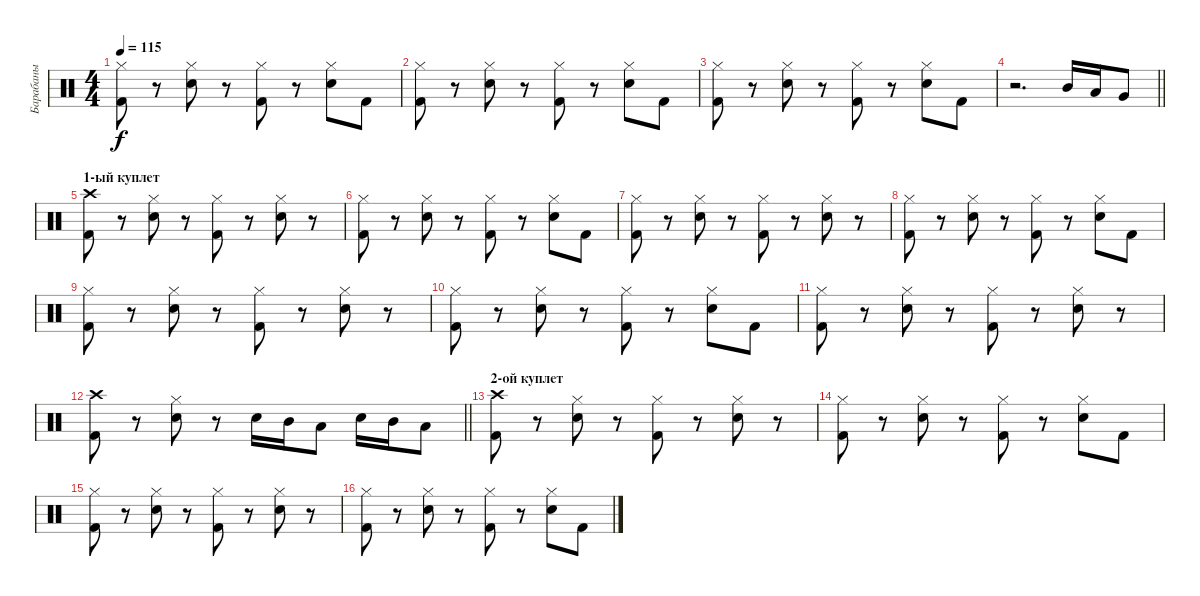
\track ("Барабаны" "Барабаны") {instrument percussion}
\staff {score}
\articulation defaults
\ts (4 4)
\tempo 115
\clef neutral
\ks c
("Kick (hit) 2" "Hi-Hat (closed)").8{dy f} r.8 ("Snare (hit) 2" "Hi-Hat (closed)").8 r.8 ("Kick (hit) 2" "Hi-Hat (closed)").8 r.8 ("Snare (hit) 2" "Hi-Hat (closed)").8 "Kick (hit) 2".8 |
("Kick (hit) 2" "Hi-Hat (closed)").8 r.8 ("Snare (hit) 2" "Hi-Hat (closed)").8 r.8 ("Kick (hit) 2" "Hi-Hat (closed)").8 r.8 ("Snare (hit) 2" "Hi-Hat (closed)").8 "Kick (hit) 2".8 |
("Kick (hit) 2" "Hi-Hat (closed)").8 r.8 ("Snare (hit) 2" "Hi-Hat (closed)").8 r.8 ("Kick (hit) 2" "Hi-Hat (closed)").8 r.8 ("Snare (hit) 2" "Hi-Hat (closed)").8 "Kick (hit) 2".8 |
\barLineRight lightlight
r.2{d} "Mid Tom (hit)".16 "Low Tom (hit)".16 "Very Low Tom (hit)".8 |
\section ("" "1-ый куплет")
("Kick (hit) 2" "Crash high (hit)").8 r.8 ("Snare (hit) 2" "Hi-Hat (closed)").8 r.8 ("Kick (hit) 2" "Hi-Hat (closed)").8 r.8 ("Snare (hit) 2" "Hi-Hat (closed)").8 r.8 |
("Kick (hit) 2" "Hi-Hat (closed)").8 r.8 ("Snare (hit) 2" "Hi-Hat (closed)").8 r.8 ("Kick (hit) 2" "Hi-Hat (closed)").8 r.8 ("Snare (hit) 2" "Hi-Hat (closed)").8 "Kick (hit) 2".8 |
("Kick (hit) 2" "Hi-Hat (closed)").8 r.8 ("Snare (hit) 2" "Hi-Hat (closed)").8 r.8 ("Kick (hit) 2" "Hi-Hat (closed)").8 r.8 ("Snare (hit) 2" "Hi-Hat (closed)").8 r.8 |
("Kick (hit) 2" "Hi-Hat (closed)").8 r.8 ("Snare (hit) 2" "Hi-Hat (closed)").8 r.8 ("Kick (hit) 2" "Hi-Hat (closed)").8 r.8 ("Snare (hit) 2" "Hi-Hat (closed)").8 "Kick (hit) 2".8 |
("Kick (hit) 2" "Hi-Hat (closed)").8 r.8 ("Snare (hit) 2" "Hi-Hat (closed)").8 r.8 ("Kick (hit) 2" "Hi-Hat (closed)").8 r.8 ("Snare (hit) 2" "Hi-Hat (closed)").8 r.8 |
("Kick (hit) 2" "Hi-Hat (closed)").8 r.8 ("Snare (hit) 2" "Hi-Hat (closed)").8 r.8 ("Kick (hit) 2" "Hi-Hat (closed)").8 r.8 ("Snare (hit) 2" "Hi-Hat (closed)").8 "Kick (hit) 2".8 |
("Kick (hit) 2" "Hi-Hat (closed)").8 r.8 ("Snare (hit) 2" "Hi-Hat (closed)").8 r.8 ("Kick (hit) 2" "Hi-Hat (closed)").8 r.8 ("Snare (hit) 2" "Hi-Hat (closed)").8 r.8 |
\barLineRight lightlight
("Kick (hit) 2" "Crash high (hit)").8 r.8 ("Snare (hit) 2" "Hi-Hat (closed)").8 r.8 "Electric Snare (hit)".16 "Mid Tom (hit)".16 "Low Tom (hit)".8 "Electric Snare (hit)".16 "Mid Tom (hit)".16 "Low Tom (hit)".8 |
\section ("" "2-ой куплет")
("Kick (hit) 2" "Crash high (hit)").8 r.8 ("Snare (hit) 2" "Hi-Hat (closed)").8 r.8 ("Kick (hit) 2" "Hi-Hat (closed)").8 r.8 ("Snare (hit) 2" "Hi-Hat (closed)").8 r.8 |
("Kick (hit) 2" "Hi-Hat (closed)").8 r.8 ("Snare (hit) 2" "Hi-Hat (closed)").8 r.8 ("Kick (hit) 2" "Hi-Hat (closed)").8 r.8 ("Snare (hit) 2" "Hi-Hat (closed)").8 "Kick (hit) 2".8 |
("Kick (hit) 2" "Hi-Hat (closed)").8 r.8 ("Snare (hit) 2" "Hi-Hat (closed)").8 r.8 ("Kick (hit) 2" "Hi-Hat (closed)").8 r.8 ("Snare (hit) 2" "Hi-Hat (closed)").8 r.8 |
("Kick (hit) 2" "Hi-Hat (closed)").8 r.8 ("Snare (hit) 2" "Hi-Hat (closed)").8 r.8 ("Kick (hit) 2" "Hi-Hat (closed)").8 r.8 ("Snare (hit) 2" "Hi-Hat (closed)").8 "Kick (hit) 2".8
